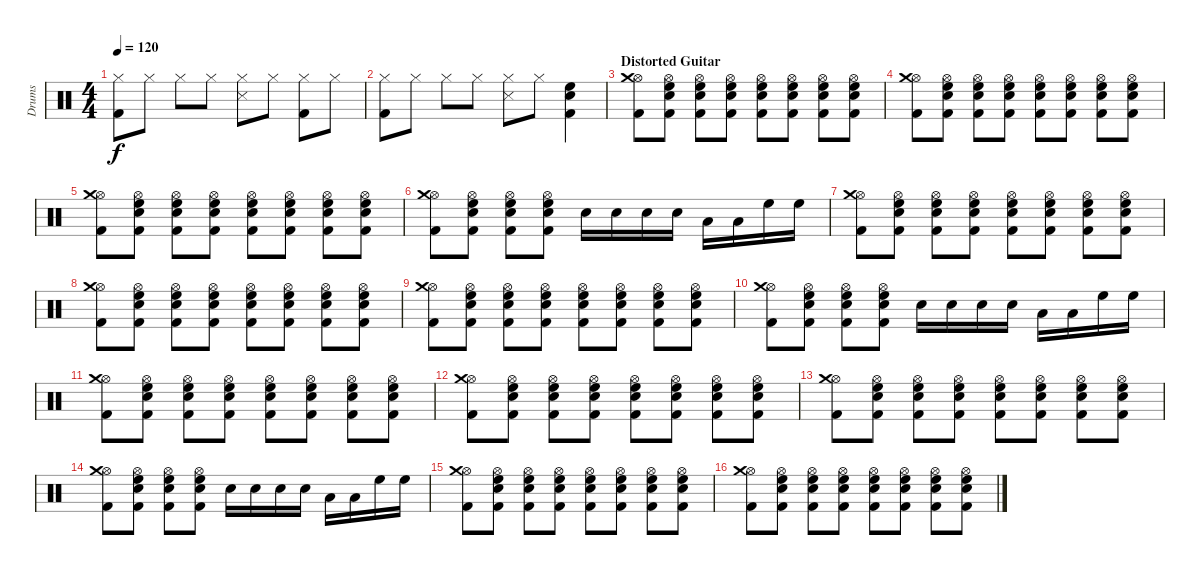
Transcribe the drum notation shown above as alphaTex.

\track ("Drums" "Drums") {instrument percussion}
\staff {score}
\articulation defaults
\ts (4 4)
\tempo 120
\clef neutral
\ks c
("Hi-Hat (closed)" "Kick (hit) 2").8{dy f} "Hi-Hat (closed)".8 "Hi-Hat (closed)".8 "Hi-Hat (closed)".8 ("Hi-Hat (closed)" "Snare (side stick) 3").8 "Hi-Hat (closed)".8 ("Hi-Hat (closed)" "Kick (hit) 2").8 "Hi-Hat (closed)".8 |
("Hi-Hat (closed)" "Kick (hit) 2").8 "Hi-Hat (closed)".8 "Hi-Hat (closed)".8 "Hi-Hat (closed)".8 ("Hi-Hat (closed)" "Snare (side stick) 3").8 "Hi-Hat (closed)".8 ("Snare (hit) 2" "Kick (hit) 2" "High Floor Tom (hit)").4 |
\section ("" "Distorted Guitar")
("Hi-Hat (open)" "Kick (hit) 2" "Crash medium (hit)").8 ("Hi-Hat (open)" "Kick (hit) 2" "Snare (hit) 2" "High Floor Tom (hit)").8 ("Hi-Hat (open)" "Kick (hit) 2" "Snare (hit) 2" "High Floor Tom (hit)").8 ("Hi-Hat (open)" "Kick (hit) 2" "Snare (hit) 2" "High Floor Tom (hit)").8 ("Hi-Hat (open)" "Kick (hit) 2" "Snare (hit) 2" "High Floor Tom (hit)").8 ("Hi-Hat (open)" "Kick (hit) 2" "Snare (hit) 2" "High Floor Tom (hit)").8 ("Hi-Hat (open)" "Kick (hit) 2" "Snare (hit) 2" "High Floor Tom (hit)").8 ("Hi-Hat (open)" "Kick (hit) 2" "Snare (hit) 2" "High Floor Tom (hit)").8 |
("Hi-Hat (open)" "Kick (hit) 2" "Crash medium (hit)").8 ("Hi-Hat (open)" "Kick (hit) 2" "Snare (hit) 2" "High Floor Tom (hit)").8 ("Hi-Hat (open)" "Kick (hit) 2" "Snare (hit) 2" "High Floor Tom (hit)").8 ("Hi-Hat (open)" "Kick (hit) 2" "Snare (hit) 2" "High Floor Tom (hit)").8 ("Hi-Hat (open)" "Kick (hit) 2" "Snare (hit) 2" "High Floor Tom (hit)").8 ("Hi-Hat (open)" "Kick (hit) 2" "Snare (hit) 2" "High Floor Tom (hit)").8 ("Hi-Hat (open)" "Kick (hit) 2" "Snare (hit) 2" "High Floor Tom (hit)").8 ("Hi-Hat (open)" "Kick (hit) 2" "Snare (hit) 2" "High Floor Tom (hit)").8 |
("Hi-Hat (open)" "Kick (hit) 2" "Crash medium (hit)").8 ("Hi-Hat (open)" "Kick (hit) 2" "Snare (hit) 2" "High Floor Tom (hit)").8 ("Hi-Hat (open)" "Kick (hit) 2" "Snare (hit) 2" "High Floor Tom (hit)").8 ("Hi-Hat (open)" "Kick (hit) 2" "Snare (hit) 2" "High Floor Tom (hit)").8 ("Hi-Hat (open)" "Kick (hit) 2" "Snare (hit) 2" "High Floor Tom (hit)").8 ("Hi-Hat (open)" "Kick (hit) 2" "Snare (hit) 2" "High Floor Tom (hit)").8 ("Hi-Hat (open)" "Kick (hit) 2" "Snare (hit) 2" "High Floor Tom (hit)").8 ("Hi-Hat (open)" "Kick (hit) 2" "Snare (hit) 2" "High Floor Tom (hit)").8 |
("Hi-Hat (open)" "Kick (hit) 2" "Crash medium (hit)").8 ("Hi-Hat (open)" "Kick (hit) 2" "Snare (hit) 2" "High Floor Tom (hit)").8 ("Hi-Hat (open)" "Kick (hit) 2" "Snare (hit) 2" "High Floor Tom (hit)").8 ("Hi-Hat (open)" "Kick (hit) 2" "Snare (hit) 2" "High Floor Tom (hit)").8 "Snare (hit) 2".16 "Snare (hit) 2".16 "Snare (hit) 2".16 "Snare (hit) 2".16 "Low Tom (hit)".16 "Low Tom (hit)".16 "High Floor Tom (hit)".16 "High Floor Tom (hit)".16 |
("Hi-Hat (open)" "Kick (hit) 2" "Crash medium (hit)").8 ("Hi-Hat (open)" "Kick (hit) 2" "Snare (hit) 2" "High Floor Tom (hit)").8 ("Hi-Hat (open)" "Kick (hit) 2" "Snare (hit) 2" "High Floor Tom (hit)").8 ("Hi-Hat (open)" "Kick (hit) 2" "Snare (hit) 2" "High Floor Tom (hit)").8 ("Hi-Hat (open)" "Kick (hit) 2" "Snare (hit) 2" "High Floor Tom (hit)").8 ("Hi-Hat (open)" "Kick (hit) 2" "Snare (hit) 2" "High Floor Tom (hit)").8 ("Hi-Hat (open)" "Kick (hit) 2" "Snare (hit) 2" "High Floor Tom (hit)").8 ("Hi-Hat (open)" "Kick (hit) 2" "Snare (hit) 2" "High Floor Tom (hit)").8 |
("Hi-Hat (open)" "Kick (hit) 2" "Crash medium (hit)").8 ("Hi-Hat (open)" "Kick (hit) 2" "Snare (hit) 2" "High Floor Tom (hit)").8 ("Hi-Hat (open)" "Kick (hit) 2" "Snare (hit) 2" "High Floor Tom (hit)").8 ("Hi-Hat (open)" "Kick (hit) 2" "Snare (hit) 2" "High Floor Tom (hit)").8 ("Hi-Hat (open)" "Kick (hit) 2" "Snare (hit) 2" "High Floor Tom (hit)").8 ("Hi-Hat (open)" "Kick (hit) 2" "Snare (hit) 2" "High Floor Tom (hit)").8 ("Hi-Hat (open)" "Kick (hit) 2" "Snare (hit) 2" "High Floor Tom (hit)").8 ("Hi-Hat (open)" "Kick (hit) 2" "Snare (hit) 2" "High Floor Tom (hit)").8 |
("Hi-Hat (open)" "Kick (hit) 2" "Crash medium (hit)").8 ("Hi-Hat (open)" "Kick (hit) 2" "Snare (hit) 2" "High Floor Tom (hit)").8 ("Hi-Hat (open)" "Kick (hit) 2" "Snare (hit) 2" "High Floor Tom (hit)").8 ("Hi-Hat (open)" "Kick (hit) 2" "Snare (hit) 2" "High Floor Tom (hit)").8 ("Hi-Hat (open)" "Kick (hit) 2" "Snare (hit) 2" "High Floor Tom (hit)").8 ("Hi-Hat (open)" "Kick (hit) 2" "Snare (hit) 2" "High Floor Tom (hit)").8 ("Hi-Hat (open)" "Kick (hit) 2" "Snare (hit) 2" "High Floor Tom (hit)").8 ("Hi-Hat (open)" "Kick (hit) 2" "Snare (hit) 2" "High Floor Tom (hit)").8 |
("Hi-Hat (open)" "Kick (hit) 2" "Crash medium (hit)").8 ("Hi-Hat (open)" "Kick (hit) 2" "Snare (hit) 2" "High Floor Tom (hit)").8 ("Hi-Hat (open)" "Kick (hit) 2" "Snare (hit) 2" "High Floor Tom (hit)").8 ("Hi-Hat (open)" "Kick (hit) 2" "Snare (hit) 2" "High Floor Tom (hit)").8 "Snare (hit) 2".16 "Snare (hit) 2".16 "Snare (hit) 2".16 "Snare (hit) 2".16 "Low Tom (hit)".16 "Low Tom (hit)".16 "High Floor Tom (hit)".16 "High Floor Tom (hit)".16 |
("Hi-Hat (open)" "Kick (hit) 2" "Crash medium (hit)").8 ("Hi-Hat (open)" "Kick (hit) 2" "Snare (hit) 2" "High Floor Tom (hit)").8 ("Hi-Hat (open)" "Kick (hit) 2" "Snare (hit) 2" "High Floor Tom (hit)").8 ("Hi-Hat (open)" "Kick (hit) 2" "Snare (hit) 2" "High Floor Tom (hit)").8 ("Hi-Hat (open)" "Kick (hit) 2" "Snare (hit) 2" "High Floor Tom (hit)").8 ("Hi-Hat (open)" "Kick (hit) 2" "Snare (hit) 2" "High Floor Tom (hit)").8 ("Hi-Hat (open)" "Kick (hit) 2" "Snare (hit) 2" "High Floor Tom (hit)").8 ("Hi-Hat (open)" "Kick (hit) 2" "Snare (hit) 2" "High Floor Tom (hit)").8 |
("Hi-Hat (open)" "Kick (hit) 2" "Crash medium (hit)").8 ("Hi-Hat (open)" "Kick (hit) 2" "Snare (hit) 2" "High Floor Tom (hit)").8 ("Hi-Hat (open)" "Kick (hit) 2" "Snare (hit) 2" "High Floor Tom (hit)").8 ("Hi-Hat (open)" "Kick (hit) 2" "Snare (hit) 2" "High Floor Tom (hit)").8 ("Hi-Hat (open)" "Kick (hit) 2" "Snare (hit) 2" "High Floor Tom (hit)").8 ("Hi-Hat (open)" "Kick (hit) 2" "Snare (hit) 2" "High Floor Tom (hit)").8 ("Hi-Hat (open)" "Kick (hit) 2" "Snare (hit) 2" "High Floor Tom (hit)").8 ("Hi-Hat (open)" "Kick (hit) 2" "Snare (hit) 2" "High Floor Tom (hit)").8 |
("Hi-Hat (open)" "Kick (hit) 2" "Crash medium (hit)").8 ("Hi-Hat (open)" "Kick (hit) 2" "Snare (hit) 2" "High Floor Tom (hit)").8 ("Hi-Hat (open)" "Kick (hit) 2" "Snare (hit) 2" "High Floor Tom (hit)").8 ("Hi-Hat (open)" "Kick (hit) 2" "Snare (hit) 2" "High Floor Tom (hit)").8 ("Hi-Hat (open)" "Kick (hit) 2" "Snare (hit) 2" "High Floor Tom (hit)").8 ("Hi-Hat (open)" "Kick (hit) 2" "Snare (hit) 2" "High Floor Tom (hit)").8 ("Hi-Hat (open)" "Kick (hit) 2" "Snare (hit) 2" "High Floor Tom (hit)").8 ("Hi-Hat (open)" "Kick (hit) 2" "Snare (hit) 2" "High Floor Tom (hit)").8 |
("Hi-Hat (open)" "Kick (hit) 2" "Crash medium (hit)").8 ("Hi-Hat (open)" "Kick (hit) 2" "Snare (hit) 2" "High Floor Tom (hit)").8 ("Hi-Hat (open)" "Kick (hit) 2" "Snare (hit) 2" "High Floor Tom (hit)").8 ("Hi-Hat (open)" "Kick (hit) 2" "Snare (hit) 2" "High Floor Tom (hit)").8 "Snare (hit) 2".16 "Snare (hit) 2".16 "Snare (hit) 2".16 "Snare (hit) 2".16 "Low Tom (hit)".16 "Low Tom (hit)".16 "High Floor Tom (hit)".16 "High Floor Tom (hit)".16 |
("Hi-Hat (open)" "Kick (hit) 2" "Crash medium (hit)").8 ("Hi-Hat (open)" "Kick (hit) 2" "Snare (hit) 2" "High Floor Tom (hit)").8 ("Hi-Hat (open)" "Kick (hit) 2" "Snare (hit) 2" "High Floor Tom (hit)").8 ("Hi-Hat (open)" "Kick (hit) 2" "Snare (hit) 2" "High Floor Tom (hit)").8 ("Hi-Hat (open)" "Kick (hit) 2" "Snare (hit) 2" "High Floor Tom (hit)").8 ("Hi-Hat (open)" "Kick (hit) 2" "Snare (hit) 2" "High Floor Tom (hit)").8 ("Hi-Hat (open)" "Kick (hit) 2" "Snare (hit) 2" "High Floor Tom (hit)").8 ("Hi-Hat (open)" "Kick (hit) 2" "Snare (hit) 2" "High Floor Tom (hit)").8 |
("Hi-Hat (open)" "Kick (hit) 2" "Crash medium (hit)").8 ("Hi-Hat (open)" "Kick (hit) 2" "Snare (hit) 2" "High Floor Tom (hit)").8 ("Hi-Hat (open)" "Kick (hit) 2" "Snare (hit) 2" "High Floor Tom (hit)").8 ("Hi-Hat (open)" "Kick (hit) 2" "Snare (hit) 2" "High Floor Tom (hit)").8 ("Hi-Hat (open)" "Kick (hit) 2" "Snare (hit) 2" "High Floor Tom (hit)").8 ("Hi-Hat (open)" "Kick (hit) 2" "Snare (hit) 2" "High Floor Tom (hit)").8 ("Hi-Hat (open)" "Kick (hit) 2" "Snare (hit) 2" "High Floor Tom (hit)").8 ("Hi-Hat (open)" "Kick (hit) 2" "Snare (hit) 2" "High Floor Tom (hit)").8
